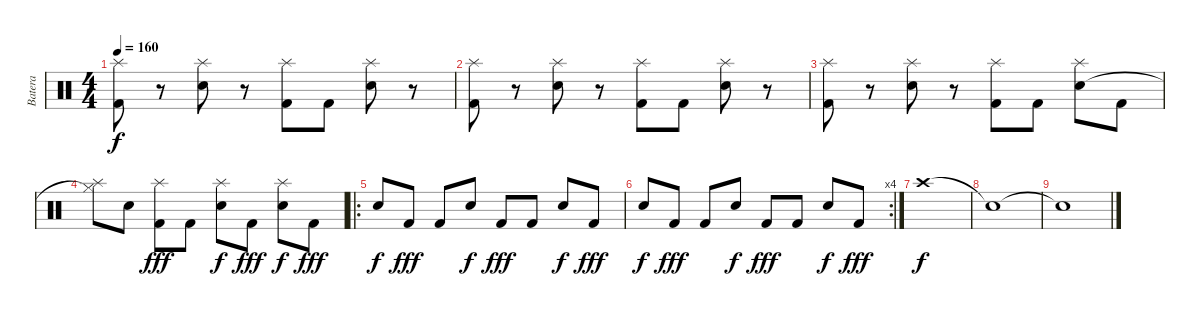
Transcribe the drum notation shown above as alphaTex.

\track ("Batera" "Batera") {instrument percussion}
\staff {score}
\articulation defaults
\ts (4 4)
\tempo 160
\clef neutral
\ks c
("Splash (hit)" "Kick (hit) 2").8{dy f} r.8 ("Splash (hit)" "Electric Snare (hit)").8 r.8 ("Splash (hit)" "Kick (hit) 2").8 "Kick (hit) 2".8 ("Splash (hit)" "Electric Snare (hit)").8 r.8 |
("Splash (hit)" "Kick (hit) 2").8 r.8 ("Splash (hit)" "Electric Snare (hit)").8 r.8 ("Splash (hit)" "Kick (hit) 2").8 "Kick (hit) 2".8 ("Splash (hit)" "Electric Snare (hit)").8 r.8 |
("Splash (hit)" "Kick (hit) 2").8 r.8 ("Splash (hit)" "Electric Snare (hit)").8 r.8 ("Splash (hit)" "Kick (hit) 2").8 "Kick (hit) 2".8 ("Splash (hit)" "Electric Snare (hit)").8 "Kick (hit) 2".8 |
("Splash (hit)" "Hi-Hat (closed)"{t}).8 "Electric Snare (hit)".8 ("Splash (hit)" "Kick (hit) 2").8{dy fff} "Kick (hit) 2".8 ("Splash (hit)" "Electric Snare (hit)").8{dy f} "Kick (hit) 2".8{dy fff} ("Splash (hit)" "Electric Snare (hit)").8{dy f} "Kick (hit) 2".8{dy fff} |
\ro "Electric Snare (hit)".8{dy f} "Kick (hit) 2".8{dy fff} "Kick (hit) 2".8 "Electric Snare (hit)".8{dy f} "Kick (hit) 2".8{dy fff} "Kick (hit) 2".8 "Electric Snare (hit)".8{dy f} "Kick (hit) 2".8{dy fff}
|
\rc 4 "Electric Snare (hit)".8{dy f} "Kick (hit) 2".8{dy fff} "Kick (hit) 2".8 "Electric Snare (hit)".8{dy f} "Kick (hit) 2".8{dy fff} "Kick (hit) 2".8 "Electric Snare (hit)".8{dy f} "Kick (hit) 2".8{dy fff}
|
"Crash high (hit)".1{dy f} |
"Snare (hit)"{t}.1 |
"Snare (hit)"{t}.1
